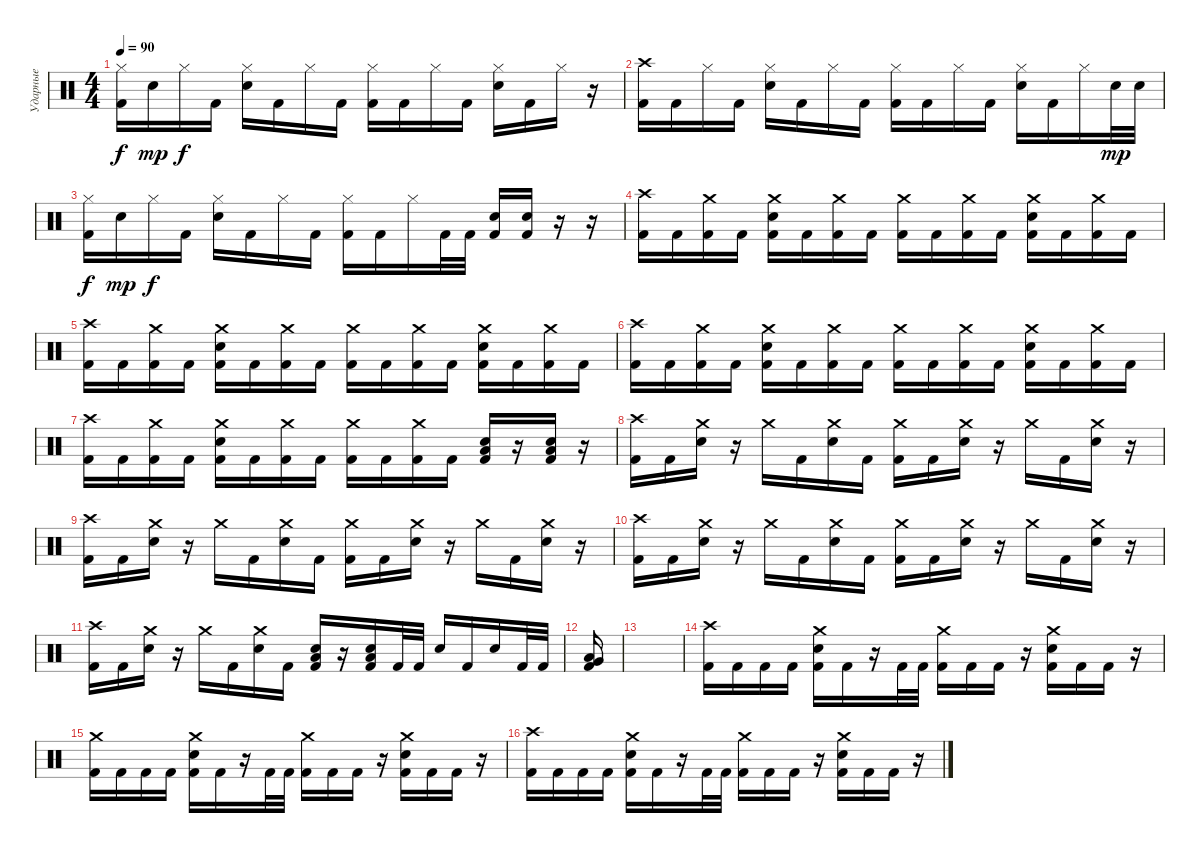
\track ("Ударные" "Ударные") {instrument percussion}
\staff {score}
\articulation defaults
\ts (4 4)
\tempo 90
\clef neutral
\ks c
("Hi-Hat (closed)" "Kick (hit) 2").16{dy f} "Electric Snare (hit)".16{dy mp} "Hi-Hat (closed)".16{dy f} "Kick (hit) 2".16 ("Hi-Hat (closed)" "Electric Snare (hit)").16 "Kick (hit) 2".16 "Hi-Hat (closed)".16 "Kick (hit) 2".16 ("Hi-Hat (closed)" "Kick (hit) 2").16 "Kick (hit) 2".16 "Hi-Hat (closed)".16 "Kick (hit) 2".16 ("Hi-Hat (closed)" "Electric Snare (hit)").16 "Kick (hit) 2".16 "Hi-Hat (closed)".16 r.16 |
("Crash high (hit)" "Kick (hit) 2").16 "Kick (hit) 2".16 "Hi-Hat (closed)".16 "Kick (hit) 2".16 ("Hi-Hat (closed)" "Electric Snare (hit)").16 "Kick (hit) 2".16 "Hi-Hat (closed)".16 "Kick (hit) 2".16 ("Hi-Hat (closed)" "Kick (hit) 2").16 "Kick (hit) 2".16 "Hi-Hat (closed)".16 "Kick (hit) 2".16 ("Hi-Hat (closed)" "Electric Snare (hit)").16 "Kick (hit) 2".16 "Hi-Hat (closed)".16 "Electric Snare (hit)".32{dy mp} "Electric Snare (hit)".32 |
("Hi-Hat (closed)" "Kick (hit) 2").16{dy f} "Electric Snare (hit)".16{dy mp} "Hi-Hat (closed)".16{dy f} "Kick (hit) 2".16 ("Hi-Hat (closed)" "Electric Snare (hit)").16 "Kick (hit) 2".16 "Hi-Hat (closed)".16 "Kick (hit) 2".16 ("Hi-Hat (closed)" "Kick (hit) 2").16 "Kick (hit) 2".16 "Hi-Hat (closed)".16 "Kick (hit) 2".32 "Kick (hit) 2".32 ("Electric Snare (hit)" "Kick (hit) 2").16 ("Electric Snare (hit)" "Kick (hit) 2").16 r.16 r.16 |
("Crash high (hit)" "Kick (hit) 2").16 "Kick (hit) 2".16 ("Crash medium (hit)" "Kick (hit) 2").16 "Kick (hit) 2".16 ("Crash medium (hit)" "Electric Snare (hit)" "Kick (hit) 2").16 "Kick (hit) 2".16 ("Crash medium (hit)" "Kick (hit) 2").16 "Kick (hit) 2".16 ("Crash medium (hit)" "Kick (hit) 2").16 "Kick (hit) 2".16 ("Crash medium (hit)" "Kick (hit) 2").16 "Kick (hit) 2".16 ("Crash medium (hit)" "Electric Snare (hit)" "Kick (hit) 2").16 "Kick (hit) 2".16 ("Crash medium (hit)" "Kick (hit) 2").16 "Kick (hit) 2".16 |
("Crash high (hit)" "Kick (hit) 2").16 "Kick (hit) 2".16 ("Crash medium (hit)" "Kick (hit) 2").16 "Kick (hit) 2".16 ("Crash medium (hit)" "Electric Snare (hit)" "Kick (hit) 2").16 "Kick (hit) 2".16 ("Crash medium (hit)" "Kick (hit) 2").16 "Kick (hit) 2".16 ("Crash medium (hit)" "Kick (hit) 2").16 "Kick (hit) 2".16 ("Crash medium (hit)" "Kick (hit) 2").16 "Kick (hit) 2".16 ("Crash medium (hit)" "Electric Snare (hit)" "Kick (hit) 2").16 "Kick (hit) 2".16 ("Crash medium (hit)" "Kick (hit) 2").16 "Kick (hit) 2".16 |
("Crash high (hit)" "Kick (hit) 2").16 "Kick (hit) 2".16 ("Crash medium (hit)" "Kick (hit) 2").16 "Kick (hit) 2".16 ("Crash medium (hit)" "Electric Snare (hit)" "Kick (hit) 2").16 "Kick (hit) 2".16 ("Crash medium (hit)" "Kick (hit) 2").16 "Kick (hit) 2".16 ("Crash medium (hit)" "Kick (hit) 2").16 "Kick (hit) 2".16 ("Crash medium (hit)" "Kick (hit) 2").16 "Kick (hit) 2".16 ("Crash medium (hit)" "Electric Snare (hit)" "Kick (hit) 2").16 "Kick (hit) 2".16 ("Crash medium (hit)" "Kick (hit) 2").16 "Kick (hit) 2".16 |
("Crash high (hit)" "Kick (hit) 2").16 "Kick (hit) 2".16 ("Crash medium (hit)" "Kick (hit) 2").16 "Kick (hit) 2".16 ("Crash medium (hit)" "Electric Snare (hit)" "Kick (hit) 2").16 "Kick (hit) 2".16 ("Crash medium (hit)" "Kick (hit) 2").16 "Kick (hit) 2".16 ("Crash medium (hit)" "Kick (hit) 2").16 "Kick (hit) 2".16 ("Crash medium (hit)" "Kick (hit) 2").16 "Kick (hit) 2".16 ("Electric Snare (hit)" "Low Floor Tom (hit)" "Kick (hit) 2").16 r.16 ("Electric Snare (hit)" "Low Floor Tom (hit)" "Kick (hit) 2").16 r.16 |
("Crash high (hit)" "Kick (hit) 2").16 "Kick (hit) 2".16 ("Crash medium (hit)" "Electric Snare (hit)").16 r.16 "Crash medium (hit)".16 "Kick (hit) 2".16 ("Crash medium (hit)" "Electric Snare (hit)").16 "Kick (hit) 2".16 ("Crash medium (hit)" "Kick (hit) 2").16 "Kick (hit) 2".16 ("Crash medium (hit)" "Electric Snare (hit)").16 r.16 "Crash medium (hit)".16 "Kick (hit) 2".16 ("Crash medium (hit)" "Electric Snare (hit)").16 r.16 |
("Crash high (hit)" "Kick (hit) 2").16 "Kick (hit) 2".16 ("Crash medium (hit)" "Electric Snare (hit)").16 r.16 "Crash medium (hit)".16 "Kick (hit) 2".16 ("Crash medium (hit)" "Electric Snare (hit)").16 "Kick (hit) 2".16 ("Crash medium (hit)" "Kick (hit) 2").16 "Kick (hit) 2".16 ("Crash medium (hit)" "Electric Snare (hit)").16 r.16 "Crash medium (hit)".16 "Kick (hit) 2".16 ("Crash medium (hit)" "Electric Snare (hit)").16 r.16 |
("Crash high (hit)" "Kick (hit) 2").16 "Kick (hit) 2".16 ("Crash medium (hit)" "Electric Snare (hit)").16 r.16 "Crash medium (hit)".16 "Kick (hit) 2".16 ("Crash medium (hit)" "Electric Snare (hit)").16 "Kick (hit) 2".16 ("Crash medium (hit)" "Kick (hit) 2").16 "Kick (hit) 2".16 ("Crash medium (hit)" "Electric Snare (hit)").16 r.16 "Crash medium (hit)".16 "Kick (hit) 2".16 ("Crash medium (hit)" "Electric Snare (hit)").16 r.16 |
("Crash high (hit)" "Kick (hit) 2").16 "Kick (hit) 2".16 ("Crash medium (hit)" "Electric Snare (hit)").16 r.16 "Crash medium (hit)".16 "Kick (hit) 2".16 ("Crash medium (hit)" "Electric Snare (hit)").16 "Kick (hit) 2".16 ("Electric Snare (hit)" "Low Floor Tom (hit)" "Kick (hit) 2").16 r.16 ("Electric Snare (hit)" "Low Floor Tom (hit)" "Kick (hit) 2").16 "Kick (hit) 2".32 "Kick (hit) 2".32 "Electric Snare (hit)".16 "Kick (hit) 2".16 "Electric Snare (hit)".16 "Kick (hit) 2".32 "Kick (hit) 2".32 |
("Very Low Tom (hit)" "Low Floor Tom (hit)" "Kick (hit) 2").16 |
|
("Crash high (hit)" "Kick (hit) 2").16 "Kick (hit) 2".16 "Kick (hit) 2".16 "Kick (hit) 2".16 ("Crash medium (hit)" "Electric Snare (hit)" "Kick (hit) 2").16 "Kick (hit) 2".16 r.16 "Kick (hit) 2".32 "Kick (hit) 2".32 ("Crash medium (hit)" "Kick (hit) 2").16 "Kick (hit) 2".16 "Kick (hit) 2".16 r.16 ("Crash medium (hit)" "Electric Snare (hit)" "Kick (hit) 2").16 "Kick (hit) 2".16 "Kick (hit) 2".16 r.16 |
("Crash medium (hit)" "Kick (hit) 2").16 "Kick (hit) 2".16 "Kick (hit) 2".16 "Kick (hit) 2".16 ("Crash medium (hit)" "Electric Snare (hit)" "Kick (hit) 2").16 "Kick (hit) 2".16 r.16 "Kick (hit) 2".32 "Kick (hit) 2".32 ("Crash medium (hit)" "Kick (hit) 2").16 "Kick (hit) 2".16 "Kick (hit) 2".16 r.16 ("Crash medium (hit)" "Electric Snare (hit)" "Kick (hit) 2").16 "Kick (hit) 2".16 "Kick (hit) 2".16 r.16 |
("Crash high (hit)" "Kick (hit) 2").16 "Kick (hit) 2".16 "Kick (hit) 2".16 "Kick (hit) 2".16 ("Crash medium (hit)" "Electric Snare (hit)" "Kick (hit) 2").16 "Kick (hit) 2".16 r.16 "Kick (hit) 2".32 "Kick (hit) 2".32 ("Crash medium (hit)" "Kick (hit) 2").16 "Kick (hit) 2".16 "Kick (hit) 2".16 r.16 ("Crash medium (hit)" "Electric Snare (hit)" "Kick (hit) 2").16 "Kick (hit) 2".16 "Kick (hit) 2".16 r.16
